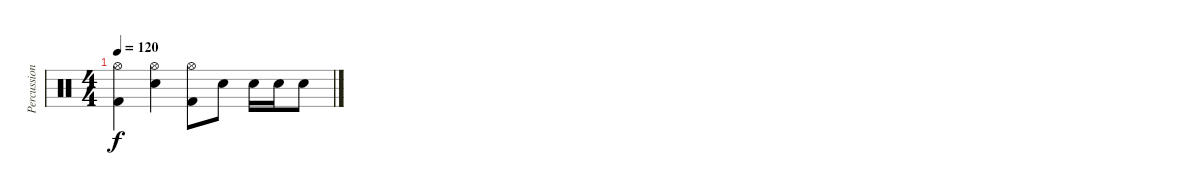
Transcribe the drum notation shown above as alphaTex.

\track ("Percussion" "Percussion") {instrument percussion}
\staff {score}
\articulation defaults
\ts (4 4)
\tempo 120
\clef neutral
\ks c
("Hi-Hat (open)" "Kick (hit) 2").4{dy f} ("Hi-Hat (open)" "Snare (hit) 2").4 ("Hi-Hat (open)" "Kick (hit) 2").8 "Snare (hit) 2".8 "Snare (hit) 2".16 "Snare (hit) 2".16 "Snare (hit) 2".8
